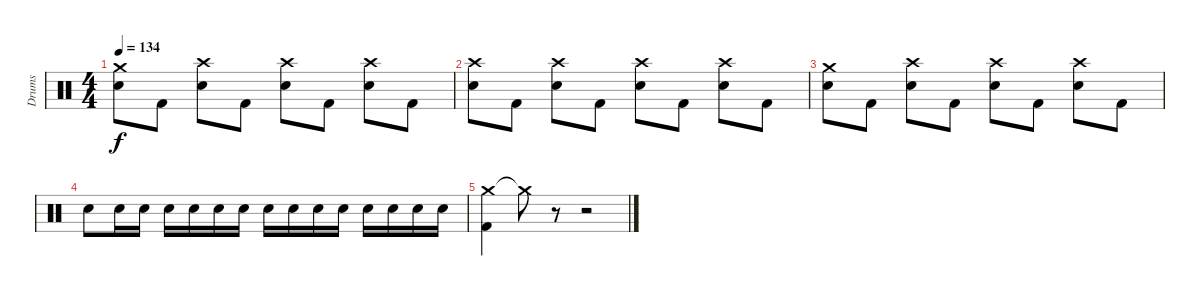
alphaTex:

\track ("Drums" "Drums") {instrument percussion}
\staff {score}
\articulation defaults
\ts (4 4)
\tempo 134
\clef neutral
\ks c
("Crash medium (hit)" "Electric Snare (hit)").8{dy f} "Kick (hit) 2".8 ("Crash high (hit)" "Electric Snare (hit)").8 "Kick (hit) 2".8 ("Crash high (hit)" "Electric Snare (hit)").8 "Kick (hit) 2".8 ("Crash high (hit)" "Electric Snare (hit)").8 "Kick (hit) 2".8 |
("Crash high (hit)" "Electric Snare (hit)").8 "Kick (hit) 2".8 ("Crash high (hit)" "Electric Snare (hit)").8 "Kick (hit) 2".8 ("Crash high (hit)" "Electric Snare (hit)").8 "Kick (hit) 2".8 ("Crash high (hit)" "Electric Snare (hit)").8 "Kick (hit) 2".8 |
("Crash medium (hit)" "Electric Snare (hit)").8 "Kick (hit) 2".8 ("Crash high (hit)" "Electric Snare (hit)").8 "Kick (hit) 2".8 ("Crash high (hit)" "Electric Snare (hit)").8 "Kick (hit) 2".8 ("Crash high (hit)" "Electric Snare (hit)").8 "Kick (hit) 2".8 |
"Electric Snare (hit)".8 "Electric Snare (hit)".16 "Electric Snare (hit)".16 "Electric Snare (hit)".16 "Electric Snare (hit)".16 "Electric Snare (hit)".16 "Electric Snare (hit)".16 "Electric Snare (hit)".16 "Electric Snare (hit)".16 "Electric Snare (hit)".16 "Electric Snare (hit)".16 "Electric Snare (hit)".16 "Electric Snare (hit)".16 "Electric Snare (hit)".16 "Electric Snare (hit)".16 |
("Crash medium (hit)" "Kick (hit) 2").4 "Crash medium (hit)"{t}.8{volume 0} r.8 r.2
